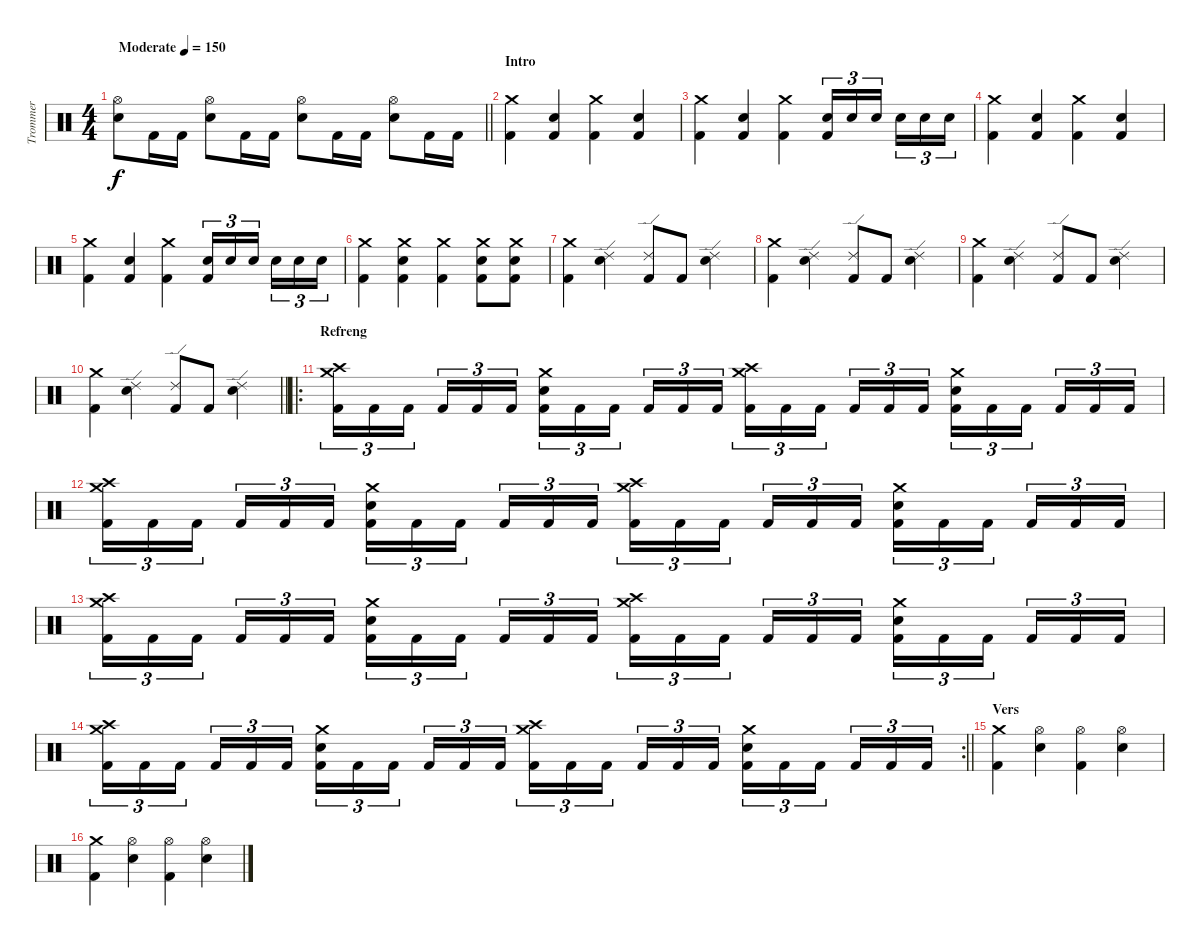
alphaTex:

\track ("Trommer" "Trommer") {instrument percussion}
\staff {score}
\articulation defaults
\ts (4 4)
\tempo (150 "Moderate")
\clef neutral
\barLineRight lightlight
\ks c
("Hi-Hat (open)" "Snare (hit) 2").8{dy f} "Kick (hit) 2".16 "Kick (hit) 2".16 ("Hi-Hat (open)" "Snare (hit) 2").8 "Kick (hit) 2".16 "Kick (hit) 2".16 ("Hi-Hat (open)" "Snare (hit) 2").8 "Kick (hit) 2".16 "Kick (hit) 2".16 ("Hi-Hat (open)" "Snare (hit) 2").8 "Kick (hit) 2".16 "Kick (hit) 2".16 |
\section ("" "Intro")
("Crash medium (hit)" "Kick (hit) 2").4 ("Snare (hit) 2" "Kick (hit) 2").4 ("Crash medium (hit)" "Kick (hit) 2").4 ("Snare (hit) 2" "Kick (hit) 2").4 |
("Crash medium (hit)" "Kick (hit) 2").4 ("Snare (hit) 2" "Kick (hit) 2").4 ("Crash medium (hit)" "Kick (hit) 2").4 ("Snare (hit) 2" "Kick (hit) 2").16{tu (3 2)} "Snare (hit) 2".16{tu (3 2)} "Snare (hit) 2".16{tu (3 2) beam splitsecondary} "Snare (hit) 2".16{tu (3 2)} "Snare (hit) 2".16{tu (3 2)} "Snare (hit) 2".16{tu (3 2)} |
("Crash medium (hit)" "Kick (hit) 2").4 ("Snare (hit) 2" "Kick (hit) 2").4 ("Crash medium (hit)" "Kick (hit) 2").4 ("Snare (hit) 2" "Kick (hit) 2").4 |
("Crash medium (hit)" "Kick (hit) 2").4 ("Snare (hit) 2" "Kick (hit) 2").4 ("Crash medium (hit)" "Kick (hit) 2").4 ("Snare (hit) 2" "Kick (hit) 2").16{tu (3 2)} "Snare (hit) 2".16{tu (3 2)} "Snare (hit) 2".16{tu (3 2) beam splitsecondary} "Snare (hit) 2".16{tu (3 2)} "Snare (hit) 2".16{tu (3 2)} "Snare (hit) 2".16{tu (3 2)} |
("Crash medium (hit)" "Kick (hit) 2").4 ("Crash medium (hit)" "Snare (hit) 2" "Kick (hit) 2").4 ("Crash medium (hit)" "Kick (hit) 2").4 ("Crash medium (hit)" "Snare (hit) 2" "Kick (hit) 2").8 ("Crash medium (hit)" "Snare (hit) 2" "Kick (hit) 2").8 |
("Crash medium (hit)" "Kick (hit) 2").4 ("Ride (edge) 2" "Snare (hit) 2").4 ("Ride (edge) 2" "Kick (hit) 2").8 "Kick (hit) 2".8 ("Ride (edge) 2" "Snare (hit) 2").4 |
("Crash medium (hit)" "Kick (hit) 2").4 ("Ride (edge) 2" "Snare (hit) 2").4 ("Ride (edge) 2" "Kick (hit) 2").8 "Kick (hit) 2".8 ("Ride (edge) 2" "Snare (hit) 2").4 |
("Crash medium (hit)" "Kick (hit) 2").4 ("Ride (edge) 2" "Snare (hit) 2").4 ("Ride (edge) 2" "Kick (hit) 2").8 "Kick (hit) 2".8 ("Ride (edge) 2" "Snare (hit) 2").4 |
\barLineRight lightlight
("Crash medium (hit)" "Kick (hit) 2").4 ("Ride (edge) 2" "Snare (hit) 2").4 ("Ride (edge) 2" "Kick (hit) 2").8 "Kick (hit) 2".8 ("Ride (edge) 2" "Snare (hit) 2").4 |
\ro
\section ("" "Refreng")
("Crash medium (hit)" "Crash high (hit)" "Kick (hit) 2").16{tu (3 2)} "Kick (hit) 2".16{tu (3 2)} "Kick (hit) 2".16{tu (3 2) beam splitsecondary} "Kick (hit) 2".16{tu (3 2)} "Kick (hit) 2".16{tu (3 2)} "Kick (hit) 2".16{tu (3 2)} ("Crash medium (hit)" "Snare (hit) 2" "Kick (hit) 2").16{tu (3 2)} "Kick (hit) 2".16{tu (3 2)} "Kick (hit) 2".16{tu (3 2) beam splitsecondary} "Kick (hit) 2".16{tu (3 2)} "Kick (hit) 2".16{tu (3 2)} "Kick (hit) 2".16{tu (3 2)} ("Crash medium (hit)" "Crash high (hit)" "Kick (hit) 2").16{tu (3 2)} "Kick (hit) 2".16{tu (3 2)} "Kick (hit) 2".16{tu (3 2) beam splitsecondary} "Kick (hit) 2".16{tu (3 2)} "Kick (hit) 2".16{tu (3 2)} "Kick (hit) 2".16{tu (3 2)} ("Crash medium (hit)" "Snare (hit) 2" "Kick (hit) 2").16{tu (3 2)} "Kick (hit) 2".16{tu (3 2)} "Kick (hit) 2".16{tu (3 2) beam splitsecondary} "Kick (hit) 2".16{tu (3 2)} "Kick (hit) 2".16{tu (3 2)} "Kick (hit) 2".16{tu (3 2)} |
("Crash medium (hit)" "Crash high (hit)" "Kick (hit) 2").16{tu (3 2)} "Kick (hit) 2".16{tu (3 2)} "Kick (hit) 2".16{tu (3 2) beam splitsecondary} "Kick (hit) 2".16{tu (3 2)} "Kick (hit) 2".16{tu (3 2)} "Kick (hit) 2".16{tu (3 2)} ("Crash medium (hit)" "Snare (hit) 2" "Kick (hit) 2").16{tu (3 2)} "Kick (hit) 2".16{tu (3 2)} "Kick (hit) 2".16{tu (3 2) beam splitsecondary} "Kick (hit) 2".16{tu (3 2)} "Kick (hit) 2".16{tu (3 2)} "Kick (hit) 2".16{tu (3 2)} ("Crash medium (hit)" "Crash high (hit)" "Kick (hit) 2").16{tu (3 2)} "Kick (hit) 2".16{tu (3 2)} "Kick (hit) 2".16{tu (3 2) beam splitsecondary} "Kick (hit) 2".16{tu (3 2)} "Kick (hit) 2".16{tu (3 2)} "Kick (hit) 2".16{tu (3 2)} ("Crash medium (hit)" "Snare (hit) 2" "Kick (hit) 2").16{tu (3 2)} "Kick (hit) 2".16{tu (3 2)} "Kick (hit) 2".16{tu (3 2) beam splitsecondary} "Kick (hit) 2".16{tu (3 2)} "Kick (hit) 2".16{tu (3 2)} "Kick (hit) 2".16{tu (3 2)} |
("Crash medium (hit)" "Crash high (hit)" "Kick (hit) 2").16{tu (3 2)} "Kick (hit) 2".16{tu (3 2)} "Kick (hit) 2".16{tu (3 2) beam splitsecondary} "Kick (hit) 2".16{tu (3 2)} "Kick (hit) 2".16{tu (3 2)} "Kick (hit) 2".16{tu (3 2)} ("Crash medium (hit)" "Snare (hit) 2" "Kick (hit) 2").16{tu (3 2)} "Kick (hit) 2".16{tu (3 2)} "Kick (hit) 2".16{tu (3 2) beam splitsecondary} "Kick (hit) 2".16{tu (3 2)} "Kick (hit) 2".16{tu (3 2)} "Kick (hit) 2".16{tu (3 2)} ("Crash medium (hit)" "Crash high (hit)" "Kick (hit) 2").16{tu (3 2)} "Kick (hit) 2".16{tu (3 2)} "Kick (hit) 2".16{tu (3 2) beam splitsecondary} "Kick (hit) 2".16{tu (3 2)} "Kick (hit) 2".16{tu (3 2)} "Kick (hit) 2".16{tu (3 2)} ("Crash medium (hit)" "Snare (hit) 2" "Kick (hit) 2").16{tu (3 2)} "Kick (hit) 2".16{tu (3 2)} "Kick (hit) 2".16{tu (3 2) beam splitsecondary} "Kick (hit) 2".16{tu (3 2)} "Kick (hit) 2".16{tu (3 2)} "Kick (hit) 2".16{tu (3 2)} |
\rc 2
\barLineRight lightlight
("Crash medium (hit)" "Crash high (hit)" "Kick (hit) 2").16{tu (3 2)} "Kick (hit) 2".16{tu (3 2)} "Kick (hit) 2".16{tu (3 2) beam splitsecondary} "Kick (hit) 2".16{tu (3 2)} "Kick (hit) 2".16{tu (3 2)} "Kick (hit) 2".16{tu (3 2)} ("Crash medium (hit)" "Snare (hit) 2" "Kick (hit) 2").16{tu (3 2)} "Kick (hit) 2".16{tu (3 2)} "Kick (hit) 2".16{tu (3 2) beam splitsecondary} "Kick (hit) 2".16{tu (3 2)} "Kick (hit) 2".16{tu (3 2)} "Kick (hit) 2".16{tu (3 2)} ("Crash medium (hit)" "Crash high (hit)" "Kick (hit) 2").16{tu (3 2)} "Kick (hit) 2".16{tu (3 2)} "Kick (hit) 2".16{tu (3 2) beam splitsecondary} "Kick (hit) 2".16{tu (3 2)} "Kick (hit) 2".16{tu (3 2)} "Kick (hit) 2".16{tu (3 2)} ("Crash medium (hit)" "Snare (hit) 2" "Kick (hit) 2").16{tu (3 2)} "Kick (hit) 2".16{tu (3 2)} "Kick (hit) 2".16{tu (3 2) beam splitsecondary} "Kick (hit) 2".16{tu (3 2)} "Kick (hit) 2".16{tu (3 2)} "Kick (hit) 2".16{tu (3 2)} |
\section ("" "Vers")
("Crash medium (hit)" "Kick (hit) 2").4 ("Hi-Hat (open)" "Snare (hit) 2").4 ("Hi-Hat (open)" "Kick (hit) 2").4 ("Hi-Hat (open)" "Snare (hit) 2").4 |
("Crash medium (hit)" "Kick (hit) 2").4 ("Hi-Hat (open)" "Snare (hit) 2").4 ("Hi-Hat (open)" "Kick (hit) 2").4 ("Hi-Hat (open)" "Snare (hit) 2").4
